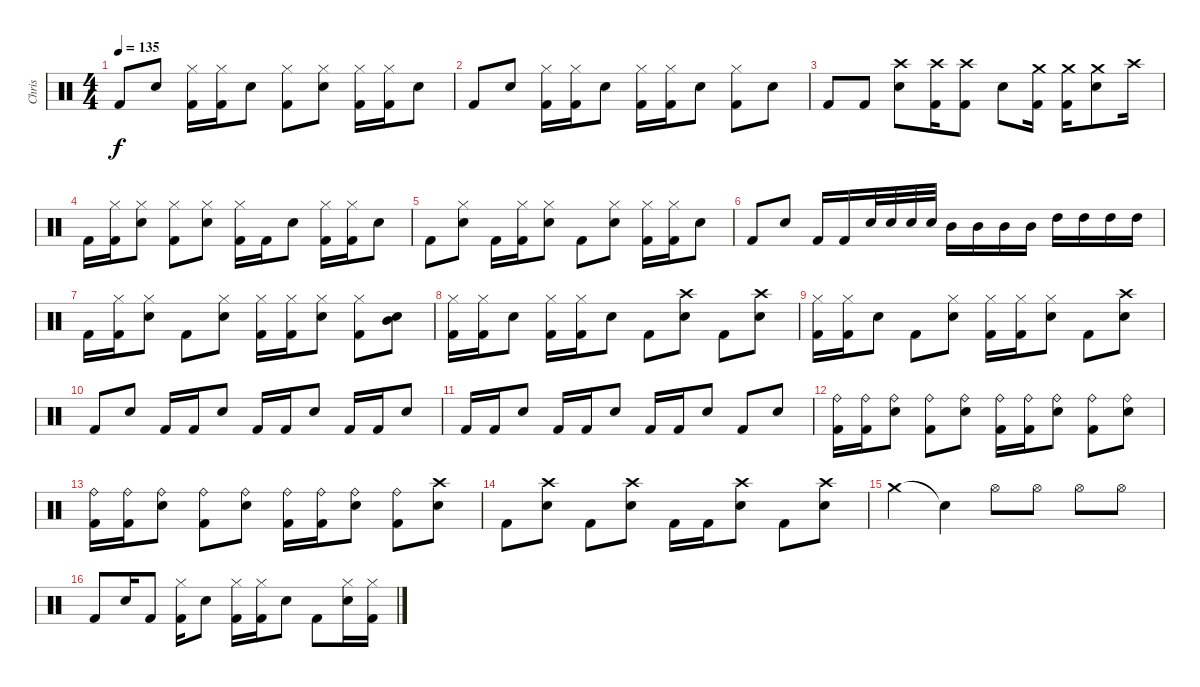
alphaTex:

\track ("Chris" "Chris") {instrument percussion}
\staff {score}
\articulation defaults
\ts (4 4)
\tempo 135
\clef neutral
\ks c "Kick (hit) 2".8{dy f} "Snare (hit) 2".8
("Hi-Hat (closed)" "Kick (hit) 2").16 ("Hi-Hat (closed)" "Kick (hit) 2").16 "Snare (hit) 2".8 ("Hi-Hat (closed)" "Kick (hit) 2").8 ("Hi-Hat (closed)" "Snare (hit) 2").8 ("Hi-Hat (closed)" "Kick (hit) 2").16 ("Hi-Hat (closed)" "Kick (hit) 2").16 "Snare (hit) 2".8 |
"Kick (hit) 2".8 "Snare (hit) 2".8 ("Hi-Hat (closed)" "Kick (hit) 2").16 ("Hi-Hat (closed)" "Kick (hit) 2").16 "Snare (hit) 2".8 ("Hi-Hat (closed)" "Kick (hit) 2").16 ("Hi-Hat (closed)" "Kick (hit) 2").16 "Snare (hit) 2".8 ("Hi-Hat (closed)" "Kick (hit) 2").8 "Snare (hit) 2".8 |
"Kick (hit) 2".8 "Kick (hit) 2".8 ("Crash high (hit)" "Snare (hit) 2").8 ("Crash high (hit)" "Kick (hit) 2").16 ("Crash high (hit)" "Kick (hit) 2").8 "Snare (hit) 2".8 ("Crash medium (hit)" "Kick (hit) 2").16 ("Crash medium (hit)" "Kick (hit) 2").16 ("Crash medium (hit)" "Snare (hit) 2").8 "Crash high (hit)".16 |
"Kick (hit) 2".16 ("Hi-Hat (closed)" "Kick (hit) 2").16 ("Hi-Hat (closed)" "Snare (hit) 2").8 ("Hi-Hat (closed)" "Kick (hit) 2").8 ("Hi-Hat (closed)" "Snare (hit) 2").8 ("Hi-Hat (closed)" "Kick (hit) 2").16 "Kick (hit) 2".16 "Snare (hit) 2".8 ("Hi-Hat (closed)" "Kick (hit) 2").16 ("Hi-Hat (closed)" "Kick (hit) 2").16 "Snare (hit) 2".8 |
"Kick (hit) 2".8 ("Hi-Hat (closed)" "Snare (hit) 2").8 "Kick (hit) 2".16 ("Hi-Hat (closed)" "Kick (hit) 2").16 ("Hi-Hat (closed)" "Snare (hit) 2").8 "Kick (hit) 2".8 ("Hi-Hat (closed)" "Snare (hit) 2").8 ("Hi-Hat (closed)" "Kick (hit) 2").16 ("Hi-Hat (closed)" "Kick (hit) 2").16 "Snare (hit) 2".8 |
"Kick (hit) 2".8 "Snare (hit) 2".8 "Kick (hit) 2".16 "Kick (hit) 2".16 "Snare (hit) 2".32 "Snare (hit) 2".32 "Snare (hit) 2".32 "Snare (hit) 2".32 "Mid Tom (hit)".16 "Mid Tom (hit)".16 "Mid Tom (hit)".16 "Mid Tom (hit)".16 "High Tom (hit)".16 "High Tom (hit)".16 "High Tom (hit)".16 "High Tom (hit)".16 |
"Kick (hit) 2".16 ("Hi-Hat (closed)" "Kick (hit) 2").16 ("Hi-Hat (closed)" "Snare (hit) 2").8 "Kick (hit) 2".8 ("Hi-Hat (closed)" "Snare (hit) 2").8 ("Hi-Hat (closed)" "Kick (hit) 2").16 ("Hi-Hat (closed)" "Kick (hit) 2").16 ("Hi-Hat (closed)" "Snare (hit) 2").8 ("Hi-Hat (closed)" "Kick (hit) 2").8 ("Mid Tom (hit)" "Snare (hit) 2").8 |
("Hi-Hat (closed)" "Kick (hit) 2").16 ("Hi-Hat (closed)" "Kick (hit) 2").16 "Snare (hit) 2".8 ("Hi-Hat (closed)" "Kick (hit) 2").16 ("Hi-Hat (closed)" "Kick (hit) 2").16 "Snare (hit) 2".8 "Kick (hit) 2".8 ("Crash high (hit)" "Snare (hit) 2").8 "Kick (hit) 2".8 ("Crash high (hit)" "Snare (hit) 2").8 |
("Hi-Hat (closed)" "Kick (hit) 2").16 ("Hi-Hat (closed)" "Kick (hit) 2").16 "Snare (hit) 2".8 "Kick (hit) 2".8 ("Hi-Hat (closed)" "Snare (hit) 2").8 ("Hi-Hat (closed)" "Kick (hit) 2").16 ("Hi-Hat (closed)" "Kick (hit) 2").16 ("Hi-Hat (closed)" "Snare (hit) 2").8 "Kick (hit) 2".8 ("Crash high (hit)" "Snare (hit) 2").8 |
"Kick (hit) 2".8 "Snare (hit) 2".8 "Kick (hit) 2".16 "Kick (hit) 2".16 "Snare (hit) 2".8 "Kick (hit) 2".16 "Kick (hit) 2".16 "Snare (hit) 2".8 "Kick (hit) 2".16 "Kick (hit) 2".16 "Snare (hit) 2".8 |
"Kick (hit) 2".16 "Kick (hit) 2".16 "Snare (hit) 2".8 "Kick (hit) 2".16 "Kick (hit) 2".16 "Snare (hit) 2".8 "Kick (hit) 2".16 "Kick (hit) 2".16 "Snare (hit) 2".8 "Kick (hit) 2".8 "Snare (hit) 2".8 |
("Ride (bell)" "Kick (hit) 2").16 ("Ride (bell)" "Kick (hit) 2").16 ("Ride (bell)" "Snare (hit) 2").8 ("Ride (bell)" "Kick (hit) 2").8 ("Ride (bell)" "Snare (hit) 2").8 ("Ride (bell)" "Kick (hit) 2").16 ("Ride (bell)" "Kick (hit) 2").16 ("Ride (bell)" "Snare (hit) 2").8 ("Ride (bell)" "Kick (hit) 2").8 ("Ride (bell)" "Snare (hit) 2").8 |
("Ride (bell)" "Kick (hit) 2").16 ("Ride (bell)" "Kick (hit) 2").16 ("Ride (bell)" "Snare (hit) 2").8 ("Ride (bell)" "Kick (hit) 2").8 ("Ride (bell)" "Snare (hit) 2").8 ("Ride (bell)" "Kick (hit) 2").16 ("Ride (bell)" "Kick (hit) 2").16 ("Ride (bell)" "Snare (hit) 2").8 ("Ride (bell)" "Kick (hit) 2").8 ("Crash high (hit)" "Snare (hit) 2").8 |
"Kick (hit) 2".8 ("Snare (hit) 2" "Crash high (hit)").8 "Kick (hit) 2".8 ("Snare (hit) 2" "Crash high (hit)").8 "Kick (hit) 2".16 "Kick (hit) 2".16 ("Snare (hit) 2" "Crash high (hit)").8 "Kick (hit) 2".8 ("Snare (hit) 2" "Crash high (hit)").8 |
"Crash medium (hit)".4 "Snare (hit)"{t}.4 "Hi-Hat (open)".8 "Hi-Hat (open)".8 "Hi-Hat (open)".8 "Hi-Hat (open)".8 |
"Kick (hit) 2".8 "Snare (hit) 2".16 "Kick (hit) 2".8 ("Hi-Hat (closed)" "Kick (hit) 2").16 "Snare (hit) 2".8 ("Hi-Hat (closed)" "Kick (hit) 2").16 ("Hi-Hat (closed)" "Kick (hit) 2").16 "Snare (hit) 2".8 "Kick (hit) 2".8 ("Hi-Hat (closed)" "Snare (hit) 2").16 ("Hi-Hat (closed)" "Kick (hit) 2").16
